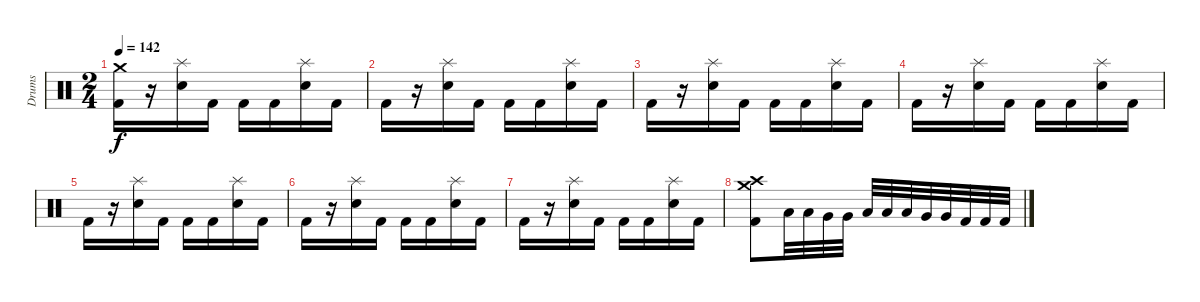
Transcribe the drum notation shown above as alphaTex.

\track ("Drums" "Drums") {instrument percussion}
\staff {score}
\articulation defaults
\ts (2 4)
\tempo 142
\clef neutral
\ks c
("Crash medium (hit)" "Kick (hit) 2").16{dy f} r.16 ("Splash (hit)" "Electric Snare (hit)").16 "Kick (hit) 2".16 "Kick (hit) 2".16 "Kick (hit) 2".16 ("Splash (hit)" "Electric Snare (hit)").16 "Kick (hit) 2".16 |
"Kick (hit) 2".16 r.16 ("Splash (hit)" "Electric Snare (hit)").16 "Kick (hit) 2".16 "Kick (hit) 2".16 "Kick (hit) 2".16 ("Splash (hit)" "Electric Snare (hit)").16 "Kick (hit) 2".16 |
"Kick (hit) 2".16 r.16 ("Splash (hit)" "Electric Snare (hit)").16 "Kick (hit) 2".16 "Kick (hit) 2".16 "Kick (hit) 2".16 ("Splash (hit)" "Electric Snare (hit)").16 "Kick (hit) 2".16 |
"Kick (hit) 2".16 r.16 ("Splash (hit)" "Electric Snare (hit)").16 "Kick (hit) 2".16 "Kick (hit) 2".16 "Kick (hit) 2".16 ("Splash (hit)" "Electric Snare (hit)").16 "Kick (hit) 2".16 |
"Kick (hit) 2".16 r.16 ("Splash (hit)" "Electric Snare (hit)").16 "Kick (hit) 2".16 "Kick (hit) 2".16 "Kick (hit) 2".16 ("Splash (hit)" "Electric Snare (hit)").16 "Kick (hit) 2".16 |
"Kick (hit) 2".16 r.16 ("Splash (hit)" "Electric Snare (hit)").16 "Kick (hit) 2".16 "Kick (hit) 2".16 "Kick (hit) 2".16 ("Splash (hit)" "Electric Snare (hit)").16 "Kick (hit) 2".16 |
"Kick (hit) 2".16 r.16 ("Splash (hit)" "Electric Snare (hit)").16 "Kick (hit) 2".16 "Kick (hit) 2".16 "Kick (hit) 2".16 ("Splash (hit)" "Electric Snare (hit)").16 "Kick (hit) 2".16 |
("Crash medium (hit)" "Crash high (hit)" "Kick (hit) 2").8 "Low Floor Tom (hit)".32 "Low Floor Tom (hit)".32 "Very Low Tom (hit)".32 "Very Low Tom (hit)".32 "Low Tom (hit)".32 "Low Tom (hit)".32 "Low Tom (hit)".32 "Very Low Tom (hit)".32 "Very Low Tom (hit)".32 "Kick (hit) 2".32 "Kick (hit) 2".32 "Kick (hit) 2".32
